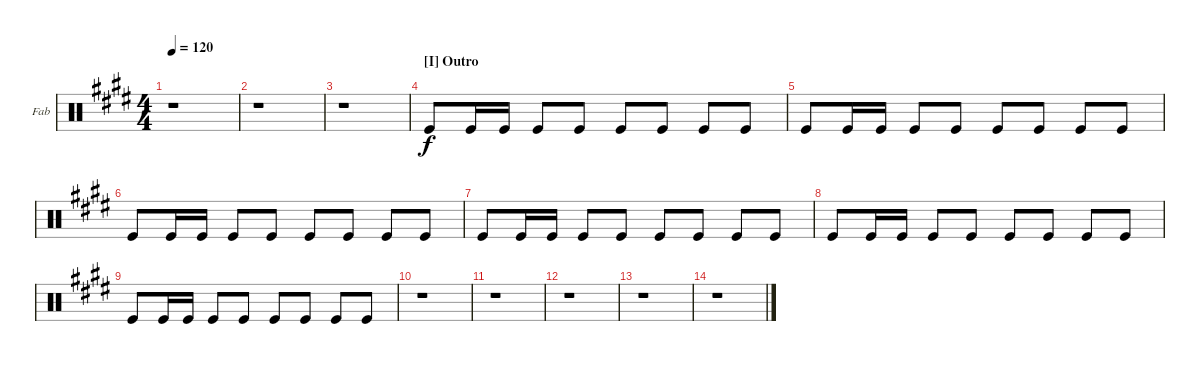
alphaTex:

\bracketExtendMode groupsimilarinstruments
\firstSystemTrackNameOrientation horizontal
\otherSystemsTrackNameOrientation horizontal
\track ("Pipe" "Fab") {instrument percussion}
\staff {score}
\articulation defaults
\ts (4 4)
\tempo 120
\clef neutral
\scale
0.333333
\ks e
r.1{dy f} |
\scale
0.333333 r.1 |
\scale
0.333333 r.1 |
\section ("I" "Outro")
\scale
0.333333 "Kick (hit)".8 "Kick (hit)".16 "Kick (hit)".16 "Kick (hit)".8 "Kick (hit)".8 "Kick (hit)".8 "Kick (hit)".8 "Kick (hit)".8 "Kick (hit)".8 |
\scale
0.333333 "Kick (hit)".8 "Kick (hit)".16 "Kick (hit)".16 "Kick (hit)".8 "Kick (hit)".8 "Kick (hit)".8 "Kick (hit)".8 "Kick (hit)".8 "Kick (hit)".8 |
\scale
0.333333 "Kick (hit)".8 "Kick (hit)".16 "Kick (hit)".16 "Kick (hit)".8 "Kick (hit)".8 "Kick (hit)".8 "Kick (hit)".8 "Kick (hit)".8 "Kick (hit)".8 |
\scale
0.333333 "Kick (hit)".8 "Kick (hit)".16 "Kick (hit)".16 "Kick (hit)".8 "Kick (hit)".8 "Kick (hit)".8 "Kick (hit)".8 "Kick (hit)".8 "Kick (hit)".8 |
\scale
0.333333 "Kick (hit)".8 "Kick (hit)".16 "Kick (hit)".16 "Kick (hit)".8 "Kick (hit)".8 "Kick (hit)".8 "Kick (hit)".8 "Kick (hit)".8 "Kick (hit)".8 |
\scale
0.333333 "Kick (hit)".8 "Kick (hit)".16 "Kick (hit)".16 "Kick (hit)".8 "Kick (hit)".8 "Kick (hit)".8 "Kick (hit)".8 "Kick (hit)".8 "Kick (hit)".8 |
\scale
0.333333 r.1 |
r.1 |
r.1 |
r.1 |
r.1
